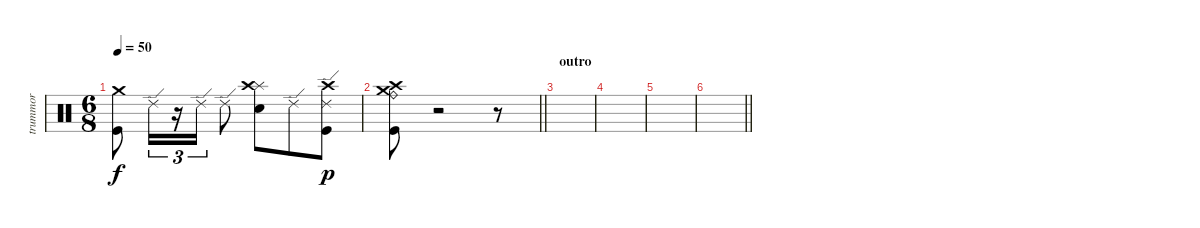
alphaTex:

\track ("trummor" "trummor") {instrument percussion}
\staff {score}
\articulation defaults
\ts (6 8)
\tempo 50
\clef neutral
\ks c
("Kick (hit)" "Crash medium (hit)").8{dy f} "Ride (edge) 2".16{tu (3 2)} r.16{tu (3 2)} "Ride (edge) 2".16{tu (3 2)} "Ride (edge) 2".8 ("Splash (hit)" "Snare (hit) 2" "Crash high (hit)").8 "Ride (edge) 2".8 ("Ride (edge) 2" "Kick (hit)" "Crash high (hit)").8{dy p} |
\barLineRight lightlight
("Kick (hit)" "Ride (bell)" "Crash medium (hit)" "Crash high (hit)").8 r.2 r.8 |
\section ("" "outro")
|
|
|
\barLineRight lightlight
